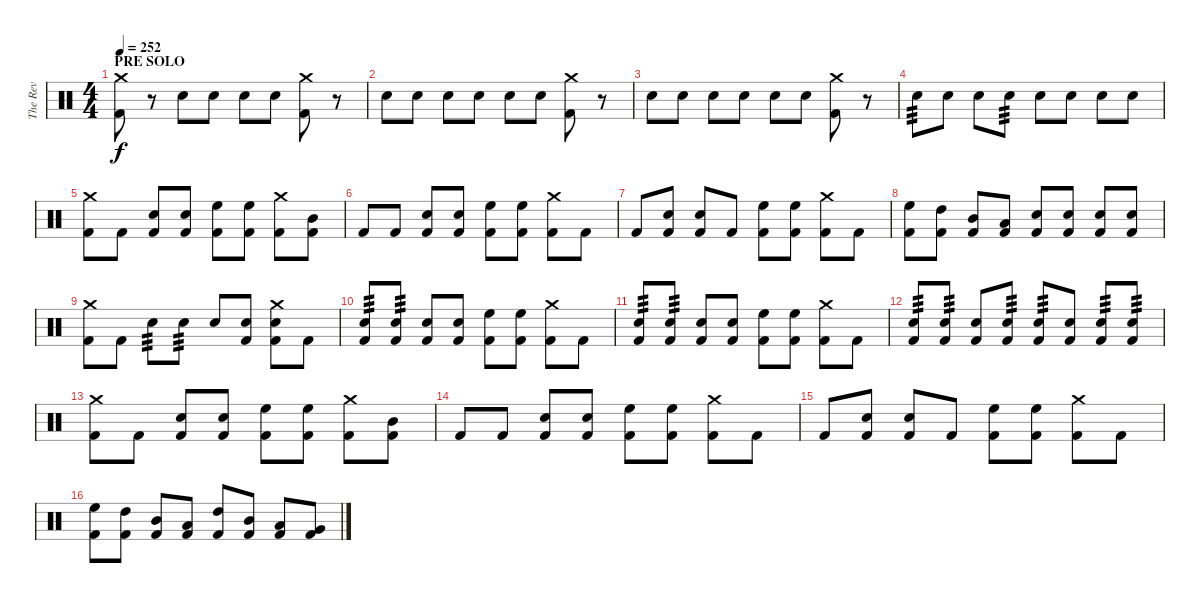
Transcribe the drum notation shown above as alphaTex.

\track ("The Rev" "The Rev") {instrument percussion}
\staff {score}
\articulation defaults
\ts (4 4)
\section ("" "PRE SOLO")
\tempo 252
\clef neutral
\ks c
("Crash medium (hit)" "Kick (hit) 2").8{dy f} r.8 "Electric Snare (hit)".8 "Electric Snare (hit)".8 "Electric Snare (hit)".8 "Electric Snare (hit)".8 ("Crash medium (hit)" "Kick (hit) 2").8 r.8 |
"Electric Snare (hit)".8 "Electric Snare (hit)".8 "Electric Snare (hit)".8 "Electric Snare (hit)".8 "Electric Snare (hit)".8 "Electric Snare (hit)".8 ("Crash medium (hit)" "Kick (hit) 2").8 r.8 |
"Electric Snare (hit)".8 "Electric Snare (hit)".8 "Electric Snare (hit)".8 "Electric Snare (hit)".8 "Electric Snare (hit)".8 "Electric Snare (hit)".8 ("Crash medium (hit)" "Kick (hit) 2").8 r.8 |
"Electric Snare (hit)".8{tp 3} "Electric Snare (hit)".8 "Electric Snare (hit)".8 "Electric Snare (hit)".8{tp 3} "Electric Snare (hit)".8 "Electric Snare (hit)".8 "Electric Snare (hit)".8 "Electric Snare (hit)".8 |
("Crash medium (hit)" "Kick (hit) 2").8 "Kick (hit) 2".8 ("Electric Snare (hit)" "Kick (hit) 2").8 ("Electric Snare (hit)" "Kick (hit) 2").8 ("High Floor Tom (hit)" "Kick (hit) 2").8 ("High Floor Tom (hit)" "Kick (hit) 2").8 ("Crash medium (hit)" "Kick (hit) 2").8 ("Mid Tom (hit)" "Kick (hit) 2").8 |
"Kick (hit) 2".8 "Kick (hit) 2".8 ("Electric Snare (hit)" "Kick (hit) 2").8 ("Electric Snare (hit)" "Kick (hit) 2").8 ("High Floor Tom (hit)" "Kick (hit) 2").8 ("High Floor Tom (hit)" "Kick (hit) 2").8 ("Crash medium (hit)" "Kick (hit) 2").8 "Kick (hit) 2".8 |
"Kick (hit) 2".8 ("Electric Snare (hit)" "Kick (hit) 2").8 ("Electric Snare (hit)" "Kick (hit) 2").8 "Kick (hit) 2".8 ("High Floor Tom (hit)" "Kick (hit) 2").8 ("High Floor Tom (hit)" "Kick (hit) 2").8 ("Crash medium (hit)" "Kick (hit) 2").8 "Kick (hit) 2".8 |
("High Floor Tom (hit)" "Kick (hit) 2").8 ("High Tom (hit)" "Kick (hit) 2").8 ("Mid Tom (hit)" "Kick (hit) 2").8 ("Low Tom (hit)" "Kick (hit) 2").8 ("Electric Snare (hit)" "Kick (hit) 2").8 ("Electric Snare (hit)" "Kick (hit) 2").8 ("Electric Snare (hit)" "Kick (hit) 2").8 ("Electric Snare (hit)" "Kick (hit) 2").8 |
("Crash medium (hit)" "Kick (hit) 2").8 "Kick (hit) 2".8 "Electric Snare (hit)".8{tp 3} "Electric Snare (hit)".8{tp 3} "Electric Snare (hit)".8 ("Electric Snare (hit)" "Kick (hit) 2").8 ("Crash medium (hit)" "Electric Snare (hit)" "Kick (hit) 2").8 "Kick (hit) 2".8 |
("Electric Snare (hit)" "Kick (hit) 2").8{tp 3} ("Electric Snare (hit)" "Kick (hit) 2").8{tp 3} ("Electric Snare (hit)" "Kick (hit) 2").8 ("Electric Snare (hit)" "Kick (hit) 2").8 ("High Floor Tom (hit)" "Kick (hit) 2").8 ("High Floor Tom (hit)" "Kick (hit) 2").8 ("Crash medium (hit)" "Kick (hit) 2").8 "Kick (hit) 2".8 |
("Electric Snare (hit)" "Kick (hit) 2").8{tp 3} ("Electric Snare (hit)" "Kick (hit) 2").8{tp 3} ("Electric Snare (hit)" "Kick (hit) 2").8 ("Electric Snare (hit)" "Kick (hit) 2").8 ("High Floor Tom (hit)" "Kick (hit) 2").8 ("High Floor Tom (hit)" "Kick (hit) 2").8 ("Crash medium (hit)" "Kick (hit) 2").8 "Kick (hit) 2".8 |
("Electric Snare (hit)" "Kick (hit) 2").8{tp 3} ("Electric Snare (hit)" "Kick (hit) 2").8{tp 3} ("Electric Snare (hit)" "Kick (hit) 2").8 ("Electric Snare (hit)" "Kick (hit) 2").8{tp 3} ("Electric Snare (hit)" "Kick (hit) 2").8{tp 3} ("Electric Snare (hit)" "Kick (hit) 2").8 ("Electric Snare (hit)" "Kick (hit) 2").8{tp 3} ("Electric Snare (hit)" "Kick (hit) 2").8{tp 3} |
("Crash medium (hit)" "Kick (hit) 2").8 "Kick (hit) 2".8 ("Electric Snare (hit)" "Kick (hit) 2").8 ("Electric Snare (hit)" "Kick (hit) 2").8 ("High Floor Tom (hit)" "Kick (hit) 2").8 ("High Floor Tom (hit)" "Kick (hit) 2").8 ("Crash medium (hit)" "Kick (hit) 2").8 ("Mid Tom (hit)" "Kick (hit) 2").8 |
"Kick (hit) 2".8 "Kick (hit) 2".8 ("Electric Snare (hit)" "Kick (hit) 2").8 ("Electric Snare (hit)" "Kick (hit) 2").8 ("High Floor Tom (hit)" "Kick (hit) 2").8 ("High Floor Tom (hit)" "Kick (hit) 2").8 ("Crash medium (hit)" "Kick (hit) 2").8 "Kick (hit) 2".8 |
"Kick (hit) 2".8 ("Electric Snare (hit)" "Kick (hit) 2").8 ("Electric Snare (hit)" "Kick (hit) 2").8 "Kick (hit) 2".8 ("High Floor Tom (hit)" "Kick (hit) 2").8 ("High Floor Tom (hit)" "Kick (hit) 2").8 ("Crash medium (hit)" "Kick (hit) 2").8 "Kick (hit) 2".8 |
("High Floor Tom (hit)" "Kick (hit) 2").8 ("High Tom (hit)" "Kick (hit) 2").8 ("Mid Tom (hit)" "Kick (hit) 2").8 ("Low Tom (hit)" "Kick (hit) 2").8 ("High Tom (hit)" "Kick (hit) 2").8 ("Mid Tom (hit)" "Kick (hit) 2").8 ("Low Tom (hit)" "Kick (hit) 2").8 ("Very Low Tom (hit)" "Kick (hit) 2").8
